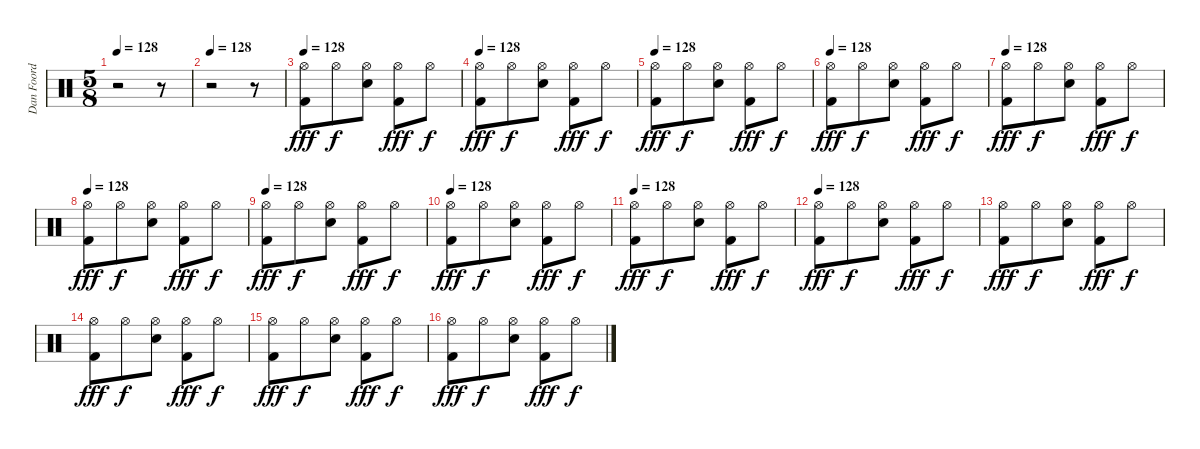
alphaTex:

\track ("Dan Foord 2" "Dan Foord ") {instrument percussion}
\staff {score}
\articulation defaults
\ts (5 8)
\tempo 128
\clef neutral
\ks c
r.2{dy ff} r.8 |
\tempo 128
r.2 r.8 |
\tempo 128
("Kick (hit) 2" "Hi-Hat (open)").8{dy fff} "Hi-Hat (open)".8{dy f} ("Snare (hit) 2" "Hi-Hat (open)").8 ("Kick (hit) 2" "Hi-Hat (open)").8{dy fff} "Hi-Hat (open)".8{dy f} |
\tempo 128
("Kick (hit) 2" "Hi-Hat (open)").8{dy fff} "Hi-Hat (open)".8{dy f} ("Snare (hit) 2" "Hi-Hat (open)").8 ("Kick (hit) 2" "Hi-Hat (open)").8{dy fff} "Hi-Hat (open)".8{dy f} |
\tempo 128
("Kick (hit) 2" "Hi-Hat (open)").8{dy fff} "Hi-Hat (open)".8{dy f} ("Snare (hit) 2" "Hi-Hat (open)").8 ("Kick (hit) 2" "Hi-Hat (open)").8{dy fff} "Hi-Hat (open)".8{dy f} |
\tempo 128
("Kick (hit) 2" "Hi-Hat (open)").8{dy fff} "Hi-Hat (open)".8{dy f} ("Snare (hit) 2" "Hi-Hat (open)").8 ("Kick (hit) 2" "Hi-Hat (open)").8{dy fff} "Hi-Hat (open)".8{dy f} |
\tempo 128
("Kick (hit) 2" "Hi-Hat (open)").8{dy fff} "Hi-Hat (open)".8{dy f} ("Snare (hit) 2" "Hi-Hat (open)").8 ("Kick (hit) 2" "Hi-Hat (open)").8{dy fff} "Hi-Hat (open)".8{dy f} |
\tempo 128
("Kick (hit) 2" "Hi-Hat (open)").8{dy fff} "Hi-Hat (open)".8{dy f} ("Snare (hit) 2" "Hi-Hat (open)").8 ("Kick (hit) 2" "Hi-Hat (open)").8{dy fff} "Hi-Hat (open)".8{dy f} |
\tempo 128
("Kick (hit) 2" "Hi-Hat (open)").8{dy fff} "Hi-Hat (open)".8{dy f} ("Snare (hit) 2" "Hi-Hat (open)").8 ("Kick (hit) 2" "Hi-Hat (open)").8{dy fff} "Hi-Hat (open)".8{dy f} |
\tempo 128
("Kick (hit) 2" "Hi-Hat (open)").8{dy fff} "Hi-Hat (open)".8{dy f} ("Snare (hit) 2" "Hi-Hat (open)").8 ("Kick (hit) 2" "Hi-Hat (open)").8{dy fff} "Hi-Hat (open)".8{dy f} |
\tempo 128
("Kick (hit) 2" "Hi-Hat (open)").8{dy fff} "Hi-Hat (open)".8{dy f} ("Snare (hit) 2" "Hi-Hat (open)").8 ("Kick (hit) 2" "Hi-Hat (open)").8{dy fff} "Hi-Hat (open)".8{dy f} |
\tempo 128
("Kick (hit) 2" "Hi-Hat (open)").8{dy fff} "Hi-Hat (open)".8{dy f} ("Snare (hit) 2" "Hi-Hat (open)").8 ("Kick (hit) 2" "Hi-Hat (open)").8{dy fff} "Hi-Hat (open)".8{dy f} |
("Kick (hit) 2" "Hi-Hat (open)").8{dy fff} "Hi-Hat (open)".8{dy f} ("Snare (hit) 2" "Hi-Hat (open)").8 ("Kick (hit) 2" "Hi-Hat (open)").8{dy fff} "Hi-Hat (open)".8{dy f} |
("Kick (hit) 2" "Hi-Hat (open)").8{dy fff} "Hi-Hat (open)".8{dy f} ("Snare (hit) 2" "Hi-Hat (open)").8 ("Kick (hit) 2" "Hi-Hat (open)").8{dy fff} "Hi-Hat (open)".8{dy f} |
("Kick (hit) 2" "Hi-Hat (open)").8{dy fff} "Hi-Hat (open)".8{dy f} ("Snare (hit) 2" "Hi-Hat (open)").8 ("Kick (hit) 2" "Hi-Hat (open)").8{dy fff} "Hi-Hat (open)".8{dy f} |
("Kick (hit) 2" "Hi-Hat (open)").8{dy fff} "Hi-Hat (open)".8{dy f} ("Snare (hit) 2" "Hi-Hat (open)").8 ("Kick (hit) 2" "Hi-Hat (open)").8{dy fff} "Hi-Hat (open)".8{dy f}
